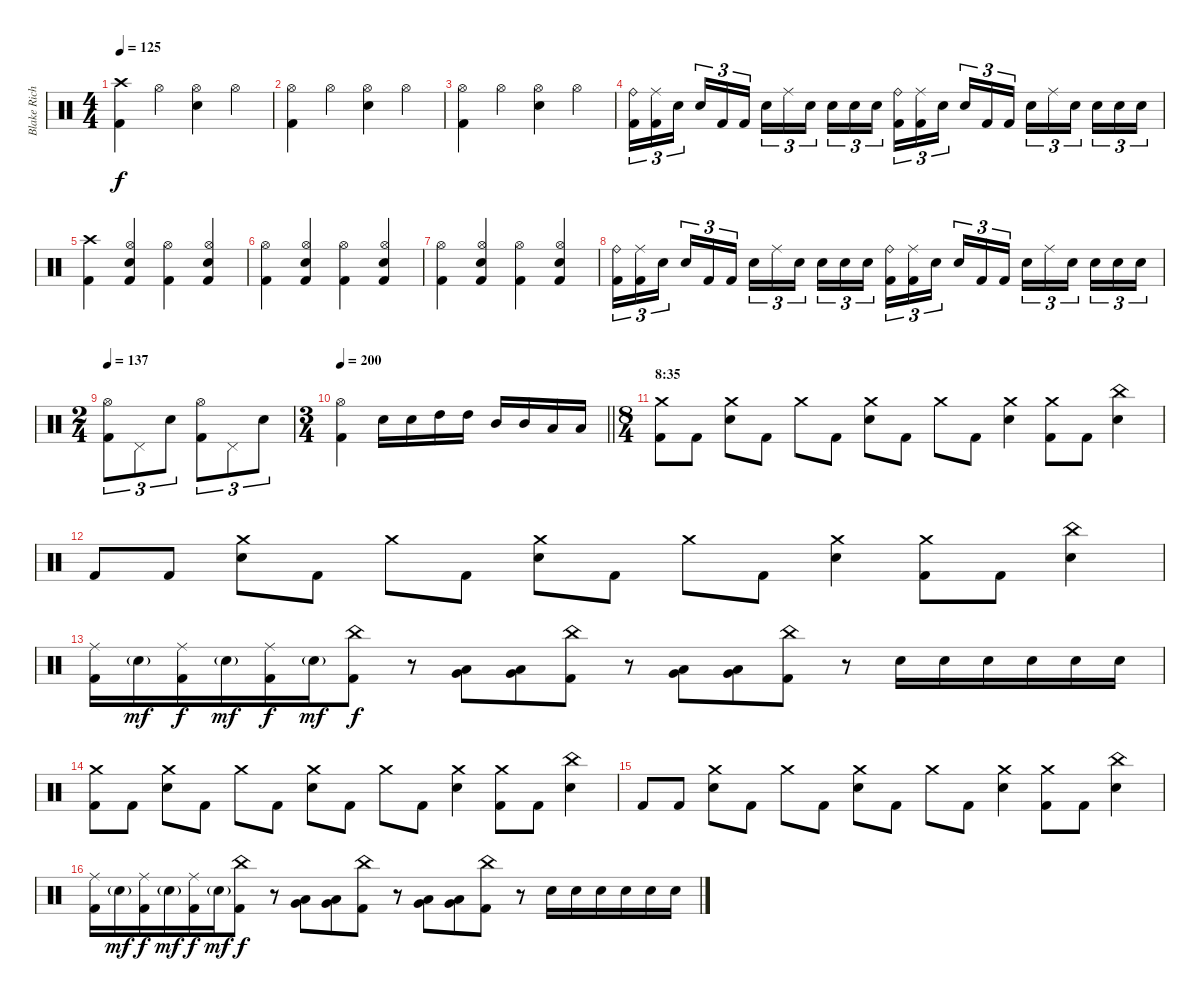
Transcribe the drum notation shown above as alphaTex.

\track ("Blake Richardson" "Blake Rich") {instrument percussion}
\staff {score}
\articulation defaults
\ts (4 4)
\tempo 125
\clef neutral
\ks c
("Crash high (hit)" "Kick (hit) 2").4{dy f} "Hi-Hat (open)".4 ("Hi-Hat (open)" "Electric Snare (hit)").4 "Hi-Hat (open)".4 |
("Hi-Hat (open)" "Kick (hit) 2").4 "Hi-Hat (open)".4 ("Hi-Hat (open)" "Electric Snare (hit)").4 "Hi-Hat (open)".4 |
("Hi-Hat (open)" "Kick (hit) 2").4 "Hi-Hat (open)".4 ("Hi-Hat (open)" "Electric Snare (hit)").4 "Hi-Hat (open)".4 |
("Ride (bell)" "Kick (hit) 2").16{tu (3 2)} ("Ride (middle)" "Kick (hit) 2").16{tu (3 2)} "Electric Snare (hit)".16{tu (3 2) beam splitsecondary} "Electric Snare (hit)".16{tu (3 2)} "Kick (hit) 2".16{tu (3 2)} "Kick (hit) 2".16{tu (3 2)} "Electric Snare (hit)".16{tu (3 2)} "Ride (middle)".16{tu (3 2)} "Electric Snare (hit)".16{tu (3 2) beam splitsecondary} "Electric Snare (hit)".16{tu (3 2)} "Electric Snare (hit)".16{tu (3 2)} "Electric Snare (hit)".16{tu (3 2)} ("Ride (bell)" "Kick (hit) 2").16{tu (3 2)} ("Ride (middle)" "Kick (hit) 2").16{tu (3 2)} "Electric Snare (hit)".16{tu (3 2) beam splitsecondary} "Electric Snare (hit)".16{tu (3 2)} "Kick (hit) 2".16{tu (3 2)} "Kick (hit) 2".16{tu (3 2)} "Electric Snare (hit)".16{tu (3 2)} "Ride (middle)".16{tu (3 2)} "Electric Snare (hit)".16{tu (3 2) beam splitsecondary} "Electric Snare (hit)".16{tu (3 2)} "Electric Snare (hit)".16{tu (3 2)} "Electric Snare (hit)".16{tu (3 2)} |
("Crash high (hit)" "Kick (hit) 2").4 ("Hi-Hat (open)" "Electric Snare (hit)" "Kick (hit) 2").4 ("Hi-Hat (open)" "Kick (hit) 2").4 ("Hi-Hat (open)" "Electric Snare (hit)" "Kick (hit) 2").4 |
("Hi-Hat (open)" "Kick (hit) 2").4 ("Hi-Hat (open)" "Electric Snare (hit)" "Kick (hit) 2").4 ("Hi-Hat (open)" "Kick (hit) 2").4 ("Hi-Hat (open)" "Electric Snare (hit)" "Kick (hit) 2").4 |
("Hi-Hat (open)" "Kick (hit) 2").4 ("Hi-Hat (open)" "Electric Snare (hit)" "Kick (hit) 2").4 ("Hi-Hat (open)" "Kick (hit) 2").4 ("Hi-Hat (open)" "Electric Snare (hit)" "Kick (hit) 2").4 |
("Ride (bell)" "Kick (hit) 2").16{tu (3 2)} ("Ride (middle)" "Kick (hit) 2").16{tu (3 2)} "Electric Snare (hit)".16{tu (3 2) beam splitsecondary} "Electric Snare (hit)".16{tu (3 2)} "Kick (hit) 2".16{tu (3 2)} "Kick (hit) 2".16{tu (3 2)} "Electric Snare (hit)".16{tu (3 2)} "Ride (middle)".16{tu (3 2)} "Electric Snare (hit)".16{tu (3 2) beam splitsecondary} "Electric Snare (hit)".16{tu (3 2)} "Electric Snare (hit)".16{tu (3 2)} "Electric Snare (hit)".16{tu (3 2)} ("Ride (bell)" "Kick (hit) 2").16{tu (3 2)} ("Ride (middle)" "Kick (hit) 2").16{tu (3 2)} "Electric Snare (hit)".16{tu (3 2) beam splitsecondary} "Electric Snare (hit)".16{tu (3 2)} "Kick (hit) 2".16{tu (3 2)} "Kick (hit) 2".16{tu (3 2)} "Electric Snare (hit)".16{tu (3 2)} "Ride (middle)".16{tu (3 2)} "Electric Snare (hit)".16{tu (3 2) beam splitsecondary} "Electric Snare (hit)".16{tu (3 2)} "Electric Snare (hit)".16{tu (3 2)} "Electric Snare (hit)".16{tu (3 2)} |
\ts (2 4)
\tempo 137
("Hi-Hat (open)" "Kick (hit) 2").8{tu (3 2)} "Pedal Hi-Hat (hit)".8{tu (3 2)} "Electric Snare (hit)".8{tu (3 2)} ("Hi-Hat (open)" "Kick (hit) 2").8{tu (3 2)} "Pedal Hi-Hat (hit)".8{tu (3 2)} "Electric Snare (hit)".8{tu (3 2)} |
\ts (3 4)
\tempo 200
\barLineRight lightlight
("Hi-Hat (open)" "Kick (hit) 2").4 "Electric Snare (hit)".16 "Electric Snare (hit)".16 "High Tom (hit)".16 "High Tom (hit)".16 "Mid Tom (hit)".16 "Mid Tom (hit)".16 "Low Tom (hit)".16 "Low Tom (hit)".16 |
\ts (8 4)
\section ("" "8:35")
("Crash medium (hit)" "Kick (hit) 2").8 "Kick (hit) 2".8 ("Crash medium (hit)" "Electric Snare (hit)").8 "Kick (hit) 2".8 "Crash medium (hit)".8 "Kick (hit) 2".8 ("Crash medium (hit)" "Electric Snare (hit)").8 "Kick (hit) 2".8 "Crash medium (hit)".8 "Kick (hit) 2".8 ("Crash medium (hit)" "Electric Snare (hit)").4 ("Crash medium (hit)" "Kick (hit) 2").8 "Kick (hit) 2".8 ("China (hit)" "Electric Snare (hit)").4 |
"Kick (hit) 2".8 "Kick (hit) 2".8 ("Crash medium (hit)" "Electric Snare (hit)").8 "Kick (hit) 2".8 "Crash medium (hit)".8 "Kick (hit) 2".8 ("Crash medium (hit)" "Electric Snare (hit)").8 "Kick (hit) 2".8 "Crash medium (hit)".8 "Kick (hit) 2".8 ("Crash medium (hit)" "Electric Snare (hit)").4 ("Crash medium (hit)" "Kick (hit) 2").8 "Kick (hit) 2".8 ("China (hit)" "Electric Snare (hit)").4 |
("Ride (middle)" "Kick (hit) 2").16 "Electric Snare (hit)"{g}.16{dy mf} ("Ride (middle)" "Kick (hit) 2").16{dy f} "Electric Snare (hit)"{g}.16{dy mf beam merge} ("Ride (middle)" "Kick (hit) 2").16{dy f} "Electric Snare (hit)"{g}.16{dy mf} ("China (hit)" "Kick (hit) 2").8{dy f} r.8 ("Low Tom (hit)" "Very Low Tom (hit)").8{beam merge} ("Low Tom (hit)" "Very Low Tom (hit)").8 ("China (hit)" "Kick (hit) 2").8 r.8 ("Low Tom (hit)" "Very Low Tom (hit)").8{beam merge} ("Low Tom (hit)" "Very Low Tom (hit)").8 ("China (hit)" "Kick (hit) 2").8 r.8 "Electric Snare (hit)".16 "Electric Snare (hit)".16{beam merge} "Electric Snare (hit)".16 "Electric Snare (hit)".16 "Electric Snare (hit)".16 "Electric Snare (hit)".16 |
("Crash medium (hit)" "Kick (hit) 2").8 "Kick (hit) 2".8 ("Crash medium (hit)" "Electric Snare (hit)").8 "Kick (hit) 2".8 "Crash medium (hit)".8 "Kick (hit) 2".8 ("Crash medium (hit)" "Electric Snare (hit)").8 "Kick (hit) 2".8 "Crash medium (hit)".8 "Kick (hit) 2".8 ("Crash medium (hit)" "Electric Snare (hit)").4 ("Crash medium (hit)" "Kick (hit) 2").8 "Kick (hit) 2".8 ("China (hit)" "Electric Snare (hit)").4 |
"Kick (hit) 2".8 "Kick (hit) 2".8 ("Crash medium (hit)" "Electric Snare (hit)").8 "Kick (hit) 2".8 "Crash medium (hit)".8 "Kick (hit) 2".8 ("Crash medium (hit)" "Electric Snare (hit)").8 "Kick (hit) 2".8 "Crash medium (hit)".8 "Kick (hit) 2".8 ("Crash medium (hit)" "Electric Snare (hit)").4 ("Crash medium (hit)" "Kick (hit) 2").8 "Kick (hit) 2".8 ("China (hit)" "Electric Snare (hit)").4 |
("Ride (middle)" "Kick (hit) 2").16 "Electric Snare (hit)"{g}.16{dy mf} ("Ride (middle)" "Kick (hit) 2").16{dy f} "Electric Snare (hit)"{g}.16{dy mf beam merge} ("Ride (middle)" "Kick (hit) 2").16{dy f} "Electric Snare (hit)"{g}.16{dy mf} ("China (hit)" "Kick (hit) 2").8{dy f} r.8 ("Low Tom (hit)" "Very Low Tom (hit)").8{beam merge} ("Low Tom (hit)" "Very Low Tom (hit)").8 ("China (hit)" "Kick (hit) 2").8 r.8 ("Low Tom (hit)" "Very Low Tom (hit)").8{beam merge} ("Low Tom (hit)" "Very Low Tom (hit)").8 ("China (hit)" "Kick (hit) 2").8 r.8 "Electric Snare (hit)".16 "Electric Snare (hit)".16{beam merge} "Electric Snare (hit)".16 "Electric Snare (hit)".16 "Electric Snare (hit)".16 "Electric Snare (hit)".16
